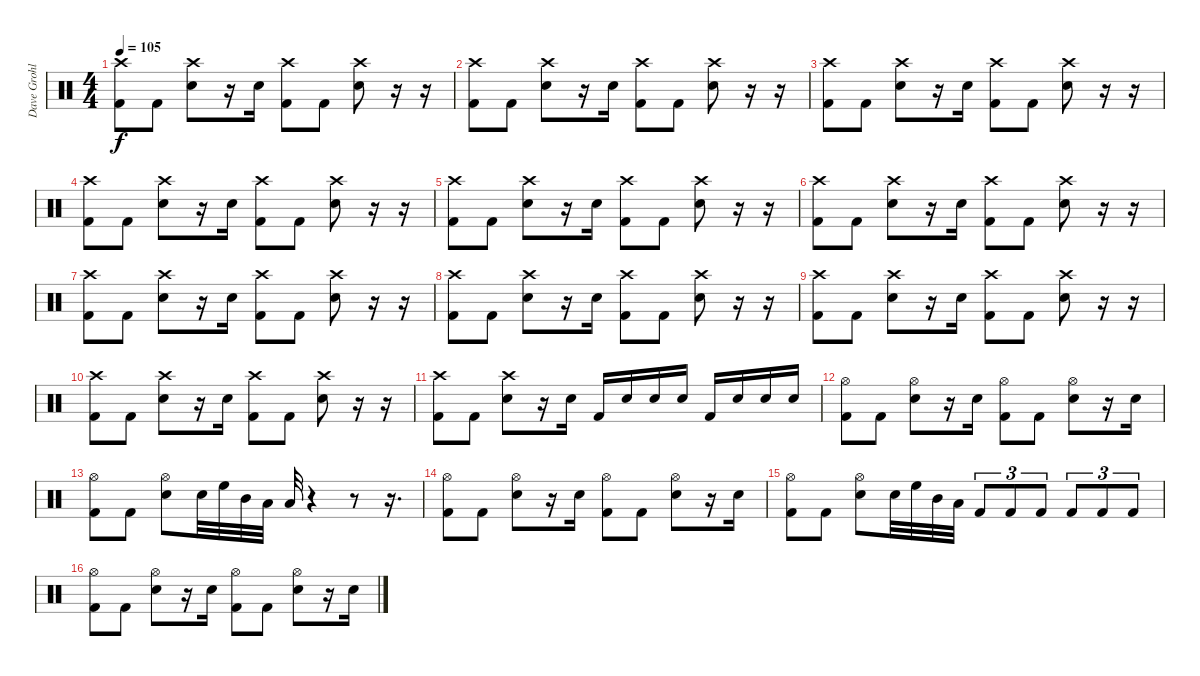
\track ("Dave Grohl" "Dave Grohl") {instrument percussion}
\staff {score}
\articulation defaults
\ts (4 4)
\tempo 105
\clef neutral
\ks c
("Crash high (hit)" "Kick (hit) 2").8{dy f} "Kick (hit) 2".8 ("Crash high (hit)" "Snare (hit) 2").8 r.16 "Snare (hit) 2".16 ("Crash high (hit)" "Kick (hit) 2").8 "Kick (hit) 2".8 ("Crash high (hit)" "Snare (hit) 2").8 r.16 r.16 |
("Crash high (hit)" "Kick (hit) 2").8 "Kick (hit) 2".8 ("Crash high (hit)" "Snare (hit) 2").8 r.16 "Snare (hit) 2".16 ("Crash high (hit)" "Kick (hit) 2").8 "Kick (hit) 2".8 ("Crash high (hit)" "Snare (hit) 2").8 r.16 r.16 |
("Crash high (hit)" "Kick (hit) 2").8 "Kick (hit) 2".8 ("Crash high (hit)" "Snare (hit) 2").8 r.16 "Snare (hit) 2".16 ("Crash high (hit)" "Kick (hit) 2").8 "Kick (hit) 2".8 ("Crash high (hit)" "Snare (hit) 2").8 r.16 r.16 |
("Crash high (hit)" "Kick (hit) 2").8 "Kick (hit) 2".8 ("Crash high (hit)" "Snare (hit) 2").8 r.16 "Snare (hit) 2".16 ("Crash high (hit)" "Kick (hit) 2").8 "Kick (hit) 2".8 ("Crash high (hit)" "Snare (hit) 2").8 r.16 r.16 |
("Crash high (hit)" "Kick (hit) 2").8 "Kick (hit) 2".8 ("Crash high (hit)" "Snare (hit) 2").8 r.16 "Snare (hit) 2".16 ("Crash high (hit)" "Kick (hit) 2").8 "Kick (hit) 2".8 ("Crash high (hit)" "Snare (hit) 2").8 r.16 r.16 |
("Crash high (hit)" "Kick (hit) 2").8 "Kick (hit) 2".8 ("Crash high (hit)" "Snare (hit) 2").8 r.16 "Snare (hit) 2".16 ("Crash high (hit)" "Kick (hit) 2").8 "Kick (hit) 2".8 ("Crash high (hit)" "Snare (hit) 2").8 r.16 r.16 |
("Crash high (hit)" "Kick (hit) 2").8 "Kick (hit) 2".8 ("Crash high (hit)" "Snare (hit) 2").8 r.16 "Snare (hit) 2".16 ("Crash high (hit)" "Kick (hit) 2").8 "Kick (hit) 2".8 ("Crash high (hit)" "Snare (hit) 2").8 r.16 r.16 |
("Crash high (hit)" "Kick (hit) 2").8 "Kick (hit) 2".8 ("Crash high (hit)" "Snare (hit) 2").8 r.16 "Snare (hit) 2".16 ("Crash high (hit)" "Kick (hit) 2").8 "Kick (hit) 2".8 ("Crash high (hit)" "Snare (hit) 2").8 r.16 r.16 |
("Crash high (hit)" "Kick (hit) 2").8 "Kick (hit) 2".8 ("Crash high (hit)" "Snare (hit) 2").8 r.16 "Snare (hit) 2".16 ("Crash high (hit)" "Kick (hit) 2").8 "Kick (hit) 2".8 ("Crash high (hit)" "Snare (hit) 2").8 r.16 r.16 |
("Crash high (hit)" "Kick (hit) 2").8 "Kick (hit) 2".8 ("Crash high (hit)" "Snare (hit) 2").8 r.16 "Snare (hit) 2".16 ("Crash high (hit)" "Kick (hit) 2").8 "Kick (hit) 2".8 ("Crash high (hit)" "Snare (hit) 2").8 r.16 r.16 |
("Crash high (hit)" "Kick (hit) 2").8 "Kick (hit) 2".8 ("Crash high (hit)" "Snare (hit) 2").8 r.16 "Snare (hit) 2".16 "Kick (hit) 2".16 "Snare (hit) 2".16 "Snare (hit) 2".16 "Snare (hit) 2".16 "Kick (hit) 2".16 "Snare (hit) 2".16 "Snare (hit) 2".16 "Snare (hit) 2".16 |
("Hi-Hat (open)" "Kick (hit) 2").8 "Kick (hit) 2".8 ("Hi-Hat (open)" "Snare (hit) 2").8 r.16 "Snare (hit) 2".16 ("Hi-Hat (open)" "Kick (hit) 2").8 "Kick (hit) 2".8 ("Hi-Hat (open)" "Snare (hit) 2").8 r.16 "Snare (hit) 2".16 |
("Hi-Hat (open)" "Kick (hit) 2").8 "Kick (hit) 2".8 ("Hi-Hat (open)" "Snare (hit) 2").8 "Snare (hit) 2".32 "High Floor Tom (hit)".32 "Mid Tom (hit)".32 "Low Tom (hit)".32 "Low Floor Tom (hit)".32 r.4 r.8 r.16{d} |
("Hi-Hat (open)" "Kick (hit) 2").8 "Kick (hit) 2".8 ("Hi-Hat (open)" "Snare (hit) 2").8 r.16 "Snare (hit) 2".16 ("Hi-Hat (open)" "Kick (hit) 2").8 "Kick (hit) 2".8 ("Hi-Hat (open)" "Snare (hit) 2").8 r.16 "Snare (hit) 2".16 |
("Hi-Hat (open)" "Kick (hit) 2").8 "Kick (hit) 2".8 ("Hi-Hat (open)" "Snare (hit) 2").8 "Snare (hit) 2".32 "High Floor Tom (hit)".32 "Mid Tom (hit)".32 "Low Tom (hit)".32 "Kick (hit) 2".8{tu (3 2)} "Kick (hit) 2".8{tu (3 2)} "Kick (hit) 2".8{tu (3 2)} "Kick (hit) 2".8{tu (3 2)} "Kick (hit) 2".8{tu (3 2)} "Kick (hit) 2".8{tu (3 2)} |
("Hi-Hat (open)" "Kick (hit) 2").8 "Kick (hit) 2".8 ("Hi-Hat (open)" "Snare (hit) 2").8 r.16 "Snare (hit) 2".16 ("Hi-Hat (open)" "Kick (hit) 2").8 "Kick (hit) 2".8 ("Hi-Hat (open)" "Snare (hit) 2").8 r.16 "Snare (hit) 2".16
